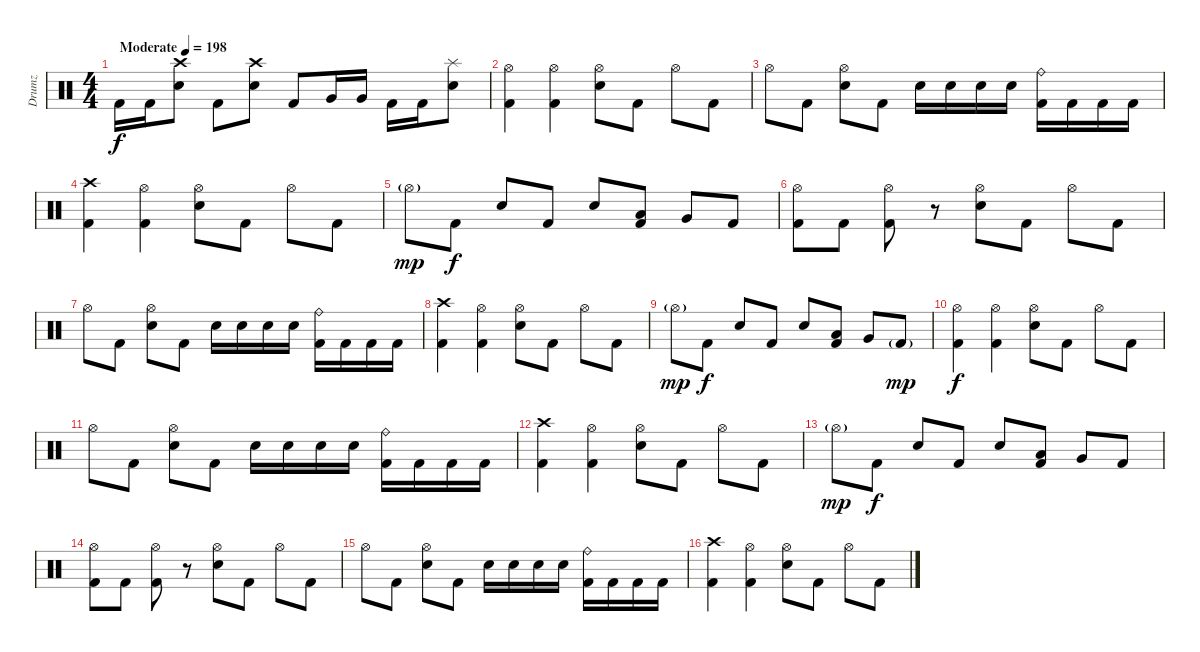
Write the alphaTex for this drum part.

\track ("Drumz" "Drumz") {instrument percussion}
\staff {score}
\articulation defaults
\ts (4 4)
\tempo (198 "Moderate")
\clef neutral
\ks c "Kick (hit) 2".16{dy f} "Kick (hit) 2".16
("Crash high (hit)" "Electric Snare (hit)").8 "Kick (hit) 2".8 ("Crash high (hit)" "Electric Snare (hit)").8 "Kick (hit) 2".8 "Very Low Tom (hit)".16 "Very Low Tom (hit)".16 "Kick (hit) 2".16 "Kick (hit) 2".16 ("Splash (hit)" "Electric Snare (hit)").8 |
("Hi-Hat (open)" "Kick (hit) 2").4 ("Hi-Hat (open)" "Kick (hit) 2").4 ("Hi-Hat (open)" "Electric Snare (hit)").8 "Kick (hit) 2".8 "Hi-Hat (open)".8 "Kick (hit) 2".8 |
"Hi-Hat (open)".8 "Kick (hit) 2".8 ("Hi-Hat (open)" "Electric Snare (hit)").8 "Kick (hit) 2".8 "Electric Snare (hit)".16 "Electric Snare (hit)".16 "Electric Snare (hit)".16 "Electric Snare (hit)".16 ("Ride (bell)" "Kick (hit) 2").16 "Kick (hit) 2".16 "Kick (hit) 2".16 "Kick (hit) 2".16 |
("Crash high (hit)" "Kick (hit) 2").4 ("Hi-Hat (open)" "Kick (hit) 2").4 ("Hi-Hat (open)" "Electric Snare (hit)").8 "Kick (hit) 2".8 "Hi-Hat (open)".8 "Kick (hit) 2".8 |
"Hi-Hat (open)"{g}.8{dy mp} "Kick (hit) 2".8{dy f} "Electric Snare (hit)".8 "Kick (hit) 2".8 "Electric Snare (hit)".8 ("Low Tom (hit)" "Kick (hit) 2").8 "Very Low Tom (hit)".8 "Kick (hit) 2".8 |
("Hi-Hat (open)" "Kick (hit) 2").8 "Kick (hit) 2".8 ("Hi-Hat (open)" "Kick (hit) 2").8 r.8 ("Hi-Hat (open)" "Electric Snare (hit)").8 "Kick (hit) 2".8 "Hi-Hat (open)".8 "Kick (hit) 2".8 |
"Hi-Hat (open)".8 "Kick (hit) 2".8 ("Hi-Hat (open)" "Electric Snare (hit)").8 "Kick (hit) 2".8 "Electric Snare (hit)".16 "Electric Snare (hit)".16 "Electric Snare (hit)".16 "Electric Snare (hit)".16 ("Ride (bell)" "Kick (hit) 2").16 "Kick (hit) 2".16 "Kick (hit) 2".16 "Kick (hit) 2".16 |
("Crash high (hit)" "Kick (hit) 2").4 ("Hi-Hat (open)" "Kick (hit) 2").4 ("Hi-Hat (open)" "Electric Snare (hit)").8 "Kick (hit) 2".8 "Hi-Hat (open)".8 "Kick (hit) 2".8 |
"Hi-Hat (open)"{g}.8{dy mp} "Kick (hit) 2".8{dy f} "Electric Snare (hit)".8 "Kick (hit) 2".8 "Electric Snare (hit)".8 ("Low Tom (hit)" "Kick (hit) 2").8 "Very Low Tom (hit)".8 "Kick (hit) 2"{g}.8{dy mp} |
("Hi-Hat (open)" "Kick (hit) 2").4{dy f} ("Hi-Hat (open)" "Kick (hit) 2").4 ("Hi-Hat (open)" "Electric Snare (hit)").8 "Kick (hit) 2".8 "Hi-Hat (open)".8 "Kick (hit) 2".8 |
"Hi-Hat (open)".8 "Kick (hit) 2".8 ("Hi-Hat (open)" "Electric Snare (hit)").8 "Kick (hit) 2".8 "Electric Snare (hit)".16 "Electric Snare (hit)".16 "Electric Snare (hit)".16 "Electric Snare (hit)".16 ("Ride (bell)" "Kick (hit) 2").16 "Kick (hit) 2".16 "Kick (hit) 2".16 "Kick (hit) 2".16 |
("Crash high (hit)" "Kick (hit) 2").4 ("Hi-Hat (open)" "Kick (hit) 2").4 ("Hi-Hat (open)" "Electric Snare (hit)").8 "Kick (hit) 2".8 "Hi-Hat (open)".8 "Kick (hit) 2".8 |
"Hi-Hat (open)"{g}.8{dy mp} "Kick (hit) 2".8{dy f} "Electric Snare (hit)".8 "Kick (hit) 2".8 "Electric Snare (hit)".8 ("Low Tom (hit)" "Kick (hit) 2").8 "Very Low Tom (hit)".8 "Kick (hit) 2".8 |
("Hi-Hat (open)" "Kick (hit) 2").8 "Kick (hit) 2".8 ("Hi-Hat (open)" "Kick (hit) 2").8 r.8 ("Hi-Hat (open)" "Electric Snare (hit)").8 "Kick (hit) 2".8 "Hi-Hat (open)".8 "Kick (hit) 2".8 |
"Hi-Hat (open)".8 "Kick (hit) 2".8 ("Hi-Hat (open)" "Electric Snare (hit)").8 "Kick (hit) 2".8 "Electric Snare (hit)".16 "Electric Snare (hit)".16 "Electric Snare (hit)".16 "Electric Snare (hit)".16 ("Ride (bell)" "Kick (hit) 2").16 "Kick (hit) 2".16 "Kick (hit) 2".16 "Kick (hit) 2".16 |
("Crash high (hit)" "Kick (hit) 2").4 ("Hi-Hat (open)" "Kick (hit) 2").4 ("Hi-Hat (open)" "Electric Snare (hit)").8 "Kick (hit) 2".8 "Hi-Hat (open)".8 "Kick (hit) 2".8
